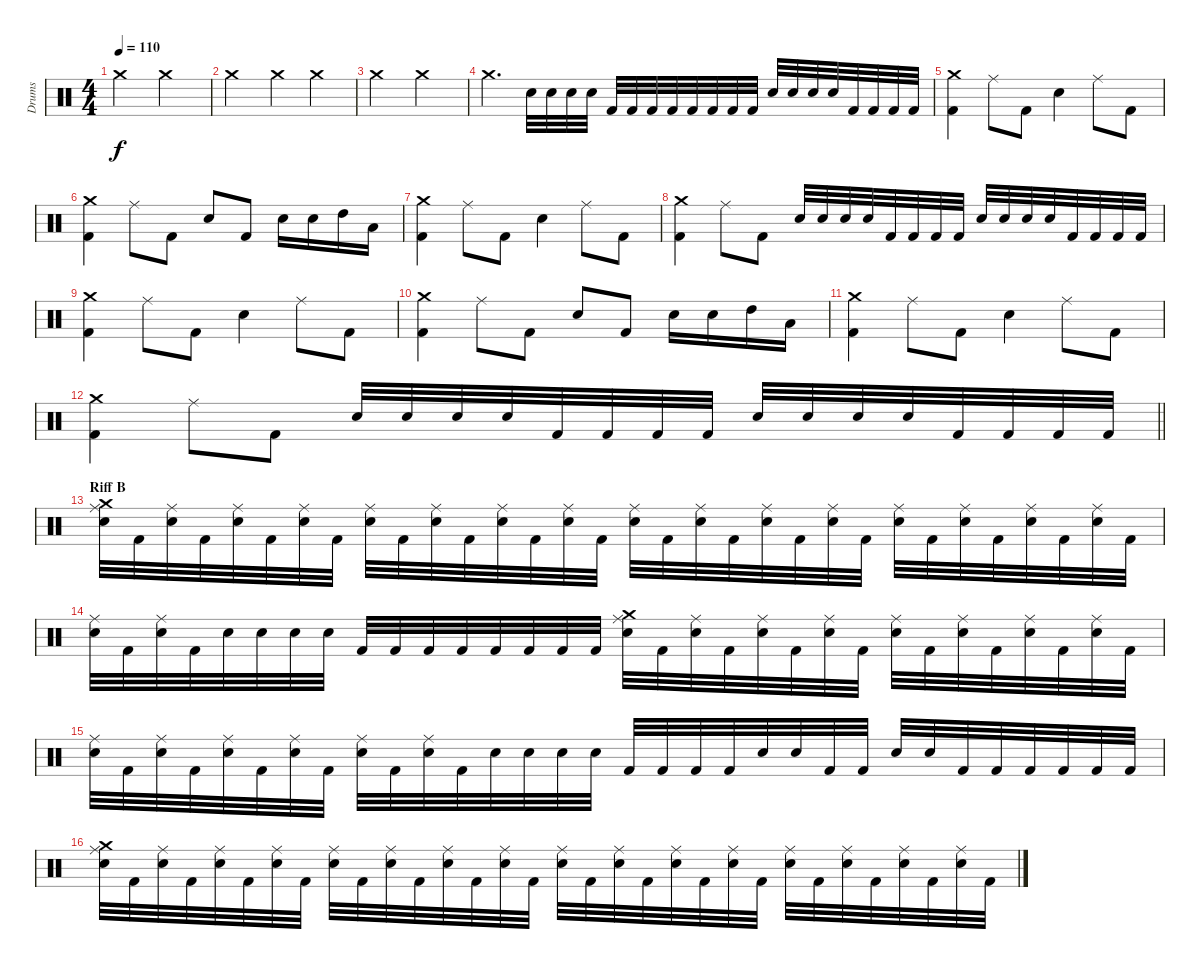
\track ("Drums" "Drums") {instrument percussion}
\staff {score}
\articulation defaults
\ts (4 4)
\tempo 110
\clef neutral
\ks c "Crash medium (hit)".2{dy f} "Crash medium (hit)".2
|
"Crash medium (hit)".2 "Crash medium (hit)".4 "Crash medium (hit)".4 |
"Crash medium (hit)".2 "Crash medium (hit)".2 |
"Crash medium (hit)".4{d} "Electric Snare (hit)".32 "Electric Snare (hit)".32 "Electric Snare (hit)".32 "Electric Snare (hit)".32 "Kick (hit) 2".32 "Kick (hit) 2".32 "Kick (hit) 2".32 "Kick (hit) 2".32 "Kick (hit) 2".32 "Kick (hit) 2".32 "Kick (hit) 2".32 "Kick (hit) 2".32 "Electric Snare (hit)".32 "Electric Snare (hit)".32 "Electric Snare (hit)".32 "Electric Snare (hit)".32 "Kick (hit) 2".32 "Kick (hit) 2".32 "Kick (hit) 2".32 "Kick (hit) 2".32 |
("Crash medium (hit)" "Kick (hit) 2").4 "Ride (middle)".8 "Kick (hit) 2".8 "Electric Snare (hit)".4 "Ride (middle)".8 "Kick (hit) 2".8 |
("Crash medium (hit)" "Kick (hit) 2").4 "Ride (middle)".8 "Kick (hit) 2".8 "Electric Snare (hit)".8 "Kick (hit) 2".8 "Electric Snare (hit)".16 "Electric Snare (hit)".16 "High Tom (hit)".16 "Low Tom (hit)".16 |
("Crash medium (hit)" "Kick (hit) 2").4 "Ride (middle)".8 "Kick (hit) 2".8 "Electric Snare (hit)".4 "Ride (middle)".8 "Kick (hit) 2".8 |
("Crash medium (hit)" "Kick (hit) 2").4 "Ride (middle)".8 "Kick (hit) 2".8 "Electric Snare (hit)".32 "Electric Snare (hit)".32 "Electric Snare (hit)".32 "Electric Snare (hit)".32 "Kick (hit) 2".32 "Kick (hit) 2".32 "Kick (hit) 2".32 "Kick (hit) 2".32 "Electric Snare (hit)".32 "Electric Snare (hit)".32 "Electric Snare (hit)".32 "Electric Snare (hit)".32 "Kick (hit) 2".32 "Kick (hit) 2".32 "Kick (hit) 2".32 "Kick (hit) 2".32 |
("Crash medium (hit)" "Kick (hit) 2").4 "Ride (middle)".8 "Kick (hit) 2".8 "Electric Snare (hit)".4 "Ride (middle)".8 "Kick (hit) 2".8 |
("Crash medium (hit)" "Kick (hit) 2").4 "Ride (middle)".8 "Kick (hit) 2".8 "Electric Snare (hit)".8 "Kick (hit) 2".8 "Electric Snare (hit)".16 "Electric Snare (hit)".16 "High Tom (hit)".16 "Low Tom (hit)".16 |
("Crash medium (hit)" "Kick (hit) 2").4 "Ride (middle)".8 "Kick (hit) 2".8 "Electric Snare (hit)".4 "Ride (middle)".8 "Kick (hit) 2".8 |
\barLineRight lightlight
("Crash medium (hit)" "Kick (hit) 2").4 "Ride (middle)".8 "Kick (hit) 2".8 "Electric Snare (hit)".32 "Electric Snare (hit)".32 "Electric Snare (hit)".32 "Electric Snare (hit)".32 "Kick (hit) 2".32 "Kick (hit) 2".32 "Kick (hit) 2".32 "Kick (hit) 2".32 "Electric Snare (hit)".32 "Electric Snare (hit)".32 "Electric Snare (hit)".32 "Electric Snare (hit)".32 "Kick (hit) 2".32 "Kick (hit) 2".32 "Kick (hit) 2".32 "Kick (hit) 2".32 |
\section ("" "Riff B")
("Crash medium (hit)" "Ride (middle)" "Electric Snare (hit)").32 "Kick (hit) 2".32 ("Ride (middle)" "Electric Snare (hit)").32 "Kick (hit) 2".32 ("Ride (middle)" "Electric Snare (hit)").32 "Kick (hit) 2".32 ("Ride (middle)" "Electric Snare (hit)").32 "Kick (hit) 2".32 ("Ride (middle)" "Electric Snare (hit)").32 "Kick (hit) 2".32 ("Ride (middle)" "Electric Snare (hit)").32 "Kick (hit) 2".32 ("Ride (middle)" "Electric Snare (hit)").32 "Kick (hit) 2".32 ("Ride (middle)" "Electric Snare (hit)").32 "Kick (hit) 2".32 ("Ride (middle)" "Electric Snare (hit)").32 "Kick (hit) 2".32 ("Ride (middle)" "Electric Snare (hit)").32 "Kick (hit) 2".32 ("Ride (middle)" "Electric Snare (hit)").32 "Kick (hit) 2".32 ("Ride (middle)" "Electric Snare (hit)").32 "Kick (hit) 2".32 ("Ride (middle)" "Electric Snare (hit)").32 "Kick (hit) 2".32 ("Ride (middle)" "Electric Snare (hit)").32 "Kick (hit) 2".32 ("Ride (middle)" "Electric Snare (hit)").32 "Kick (hit) 2".32 ("Ride (middle)" "Electric Snare (hit)").32 "Kick (hit) 2".32 |
("Ride (middle)" "Electric Snare (hit)").32 "Kick (hit) 2".32 ("Ride (middle)" "Electric Snare (hit)").32 "Kick (hit) 2".32 "Electric Snare (hit)".32 "Electric Snare (hit)".32 "Electric Snare (hit)".32 "Electric Snare (hit)".32 "Kick (hit) 2".32 "Kick (hit) 2".32 "Kick (hit) 2".32 "Kick (hit) 2".32 "Kick (hit) 2".32 "Kick (hit) 2".32 "Kick (hit) 2".32 "Kick (hit) 2".32 ("Crash medium (hit)" "Ride (middle)" "Electric Snare (hit)").32 "Kick (hit) 2".32 ("Ride (middle)" "Electric Snare (hit)").32 "Kick (hit) 2".32 ("Ride (middle)" "Electric Snare (hit)").32 "Kick (hit) 2".32 ("Ride (middle)" "Electric Snare (hit)").32 "Kick (hit) 2".32 ("Ride (middle)" "Electric Snare (hit)").32 "Kick (hit) 2".32 ("Ride (middle)" "Electric Snare (hit)").32 "Kick (hit) 2".32 ("Ride (middle)" "Electric Snare (hit)").32 "Kick (hit) 2".32 ("Ride (middle)" "Electric Snare (hit)").32 "Kick (hit) 2".32 |
("Ride (middle)" "Electric Snare (hit)").32 "Kick (hit) 2".32 ("Ride (middle)" "Electric Snare (hit)").32 "Kick (hit) 2".32 ("Ride (middle)" "Electric Snare (hit)").32 "Kick (hit) 2".32 ("Ride (middle)" "Electric Snare (hit)").32 "Kick (hit) 2".32 ("Ride (middle)" "Electric Snare (hit)").32 "Kick (hit) 2".32 ("Ride (middle)" "Electric Snare (hit)").32 "Kick (hit) 2".32 "Electric Snare (hit)".32 "Electric Snare (hit)".32 "Electric Snare (hit)".32 "Electric Snare (hit)".32 "Kick (hit) 2".32 "Kick (hit) 2".32 "Kick (hit) 2".32 "Kick (hit) 2".32 "Electric Snare (hit)".32 "Electric Snare (hit)".32 "Kick (hit) 2".32 "Kick (hit) 2".32 "Electric Snare (hit)".32 "Electric Snare (hit)".32 "Kick (hit) 2".32 "Kick (hit) 2".32 "Kick (hit) 2".32 "Kick (hit) 2".32 "Kick (hit) 2".32 "Kick (hit) 2".32 |
("Crash medium (hit)" "Ride (middle)" "Electric Snare (hit)").32 "Kick (hit) 2".32 ("Ride (middle)" "Electric Snare (hit)").32 "Kick (hit) 2".32 ("Ride (middle)" "Electric Snare (hit)").32 "Kick (hit) 2".32 ("Ride (middle)" "Electric Snare (hit)").32 "Kick (hit) 2".32 ("Ride (middle)" "Electric Snare (hit)").32 "Kick (hit) 2".32 ("Ride (middle)" "Electric Snare (hit)").32 "Kick (hit) 2".32 ("Ride (middle)" "Electric Snare (hit)").32 "Kick (hit) 2".32 ("Ride (middle)" "Electric Snare (hit)").32 "Kick (hit) 2".32 ("Ride (middle)" "Electric Snare (hit)").32 "Kick (hit) 2".32 ("Ride (middle)" "Electric Snare (hit)").32 "Kick (hit) 2".32 ("Ride (middle)" "Electric Snare (hit)").32 "Kick (hit) 2".32 ("Ride (middle)" "Electric Snare (hit)").32 "Kick (hit) 2".32 ("Ride (middle)" "Electric Snare (hit)").32 "Kick (hit) 2".32 ("Ride (middle)" "Electric Snare (hit)").32 "Kick (hit) 2".32 ("Ride (middle)" "Electric Snare (hit)").32 "Kick (hit) 2".32 ("Ride (middle)" "Electric Snare (hit)").32 "Kick (hit) 2".32
